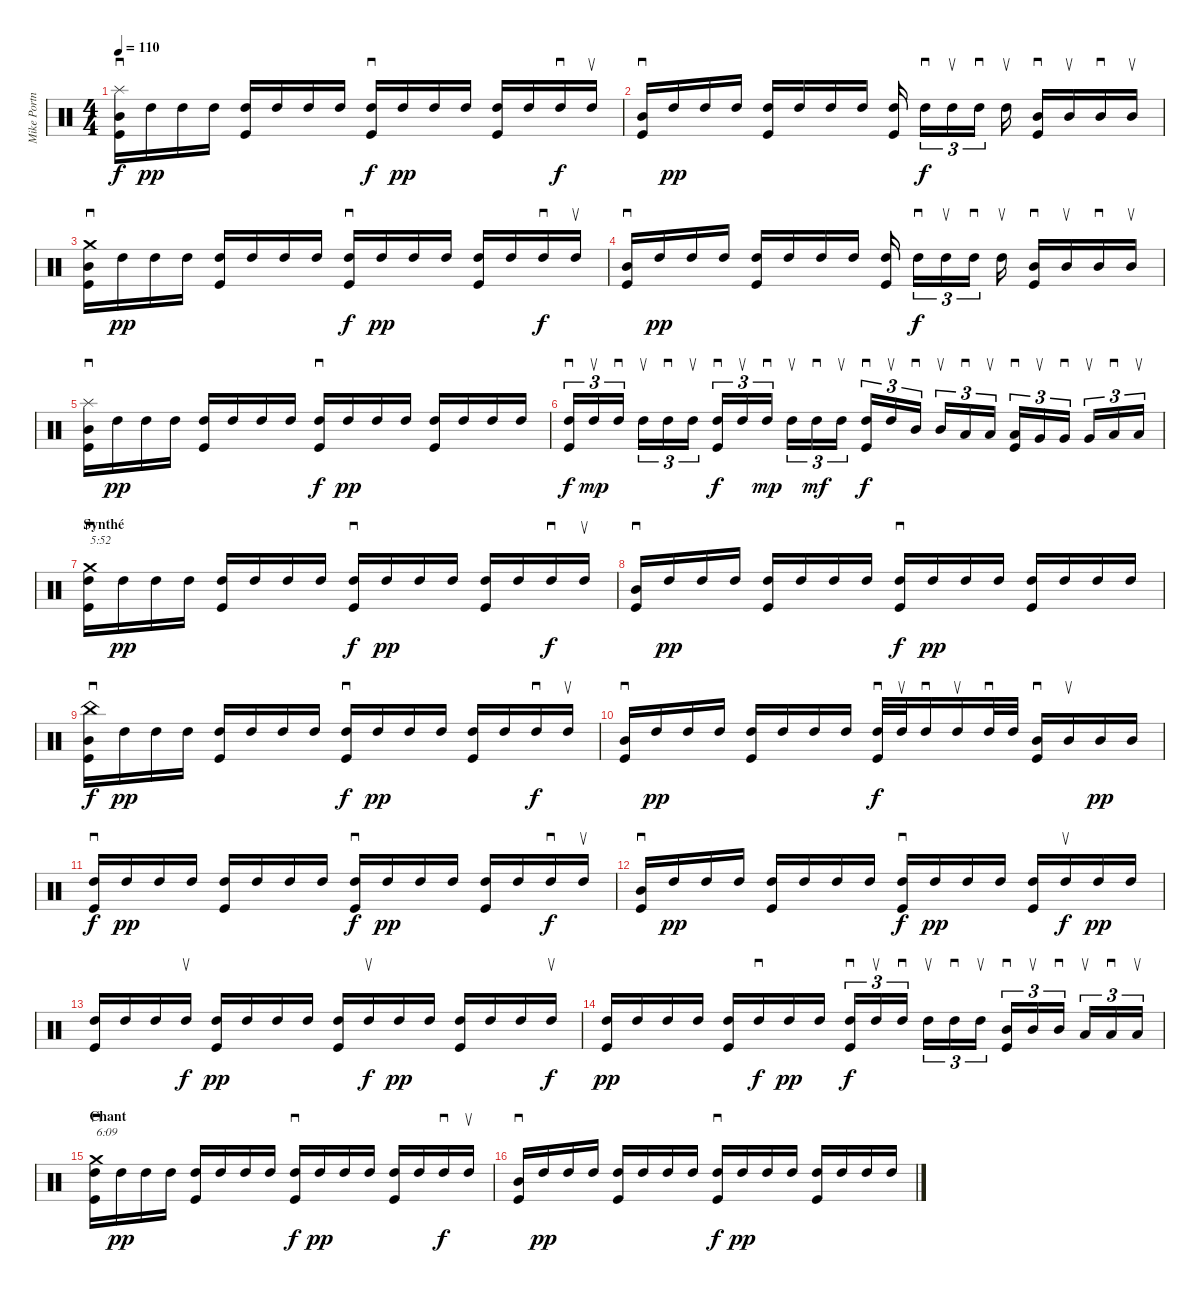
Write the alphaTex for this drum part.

\track ("Mike Portnoy" "Mike Portn") {instrument percussion}
\staff {score}
\articulation defaults
\ts (4 4)
\tempo 110
\clef neutral
\ks c
("Splash (hit)" "Mid Tom (hit)" "Kick (hit)").16{sd dy f} "High Tom (hit)".16{dy pp} "High Tom (hit)".16 "High Tom (hit)".16 ("High Tom (hit)" "Kick (hit)").16 "High Tom (hit)".16 "High Tom (hit)".16 "High Tom (hit)".16 ("High Tom (hit)" "Kick (hit)").16{sd dy f} "High Tom (hit)".16{dy pp} "High Tom (hit)".16 "High Tom (hit)".16 ("High Tom (hit)" "Kick (hit)").16 "High Tom (hit)".16 "High Tom (hit)".16{sd dy f} "High Tom (hit)".16{su} |
("Mid Tom (hit)" "Kick (hit)").16{sd} "High Tom (hit)".16{dy pp} "High Tom (hit)".16 "High Tom (hit)".16 ("High Tom (hit)" "Kick (hit)").16 "High Tom (hit)".16 "High Tom (hit)".16 "High Tom (hit)".16 ("High Tom (hit)" "Kick (hit)").16 "High Tom (hit)".16{sd tu (3 2) dy f} "High Tom (hit)".16{su tu (3 2)} "High Tom (hit)".16{sd tu (3 2)} "High Tom (hit)".16{su} ("Mid Tom (hit)" "Kick (hit)").16{sd} "Mid Tom (hit)".16{su} "Mid Tom (hit)".16{sd} "Mid Tom (hit)".16{su} |
("Crash medium (hit)" "Mid Tom (hit)" "Kick (hit)").16{sd} "High Tom (hit)".16{dy pp} "High Tom (hit)".16 "High Tom (hit)".16 ("High Tom (hit)" "Kick (hit)").16 "High Tom (hit)".16 "High Tom (hit)".16 "High Tom (hit)".16 ("High Tom (hit)" "Kick (hit)").16{sd dy f} "High Tom (hit)".16{dy pp} "High Tom (hit)".16 "High Tom (hit)".16 ("High Tom (hit)" "Kick (hit)").16 "High Tom (hit)".16 "High Tom (hit)".16{sd dy f} "High Tom (hit)".16{su} |
("Mid Tom (hit)" "Kick (hit)").16{sd} "High Tom (hit)".16{dy pp} "High Tom (hit)".16 "High Tom (hit)".16 ("High Tom (hit)" "Kick (hit)").16 "High Tom (hit)".16 "High Tom (hit)".16 "High Tom (hit)".16 ("High Tom (hit)" "Kick (hit)").16 "High Tom (hit)".16{sd tu (3 2) dy f} "High Tom (hit)".16{su tu (3 2)} "High Tom (hit)".16{sd tu (3 2)} "High Tom (hit)".16{su} ("Mid Tom (hit)" "Kick (hit)").16{sd} "Mid Tom (hit)".16{su} "Mid Tom (hit)".16{sd} "Mid Tom (hit)".16{su} |
("Splash (hit)" "Mid Tom (hit)" "Kick (hit)").16{sd} "High Tom (hit)".16{dy pp} "High Tom (hit)".16 "High Tom (hit)".16 ("High Tom (hit)" "Kick (hit)").16 "High Tom (hit)".16 "High Tom (hit)".16 "High Tom (hit)".16 ("High Tom (hit)" "Kick (hit)").16{sd dy f} "High Tom (hit)".16{dy pp} "High Tom (hit)".16 "High Tom (hit)".16 ("High Tom (hit)" "Kick (hit)").16 "High Tom (hit)".16 "High Tom (hit)".16 "High Tom (hit)".16 |
("High Tom (hit)" "Kick (hit)").16{sd tu (3 2) dy f} "High Tom (hit)".16{su tu (3 2) dy mp} "High Tom (hit)".16{sd tu (3 2)} "High Tom (hit)".16{su tu (3 2)} "High Tom (hit)".16{sd tu (3 2)} "High Tom (hit)".16{su tu (3 2)} ("High Tom (hit)" "Kick (hit)").16{sd tu (3 2) dy f} "High Tom (hit)".16{su tu (3 2)} "High Tom (hit)".16{sd tu (3 2) dy mp} "High Tom (hit)".16{su tu (3 2)} "High Tom (hit)".16{sd tu (3 2) dy mf} "High Tom (hit)".16{su tu (3 2)} ("High Tom (hit)" "Kick (hit)").16{sd tu (3 2) dy f} "High Tom (hit)".16{su tu (3 2)} "Mid Tom (hit)".16{sd tu (3 2)} "Mid Tom (hit)".16{su tu (3 2)} "Low Tom (hit)".16{sd tu (3 2)} "Low Tom (hit)".16{su tu (3 2)} ("Low Tom (hit)" "Kick (hit)").16{sd tu (3 2)} "Very Low Tom (hit)".16{su tu (3 2)} "Very Low Tom (hit)".16{sd tu (3 2)} "Very Low Tom (hit)".16{su tu (3 2)} "Low Floor Tom (hit)".16{sd tu (3 2)} "Low Floor Tom (hit)".16{su tu (3 2)} |
\section ("" "Synthé")
("Crash medium (hit)" "High Tom (hit)" "Kick (hit)").16{sd txt "5:52"} "High Tom (hit)".16{dy pp} "High Tom (hit)".16 "High Tom (hit)".16 ("High Tom (hit)" "Kick (hit)").16 "High Tom (hit)".16 "High Tom (hit)".16 "High Tom (hit)".16 ("High Tom (hit)" "Kick (hit)").16{sd dy f} "High Tom (hit)".16{dy pp} "High Tom (hit)".16 "High Tom (hit)".16 ("High Tom (hit)" "Kick (hit)").16 "High Tom (hit)".16 "High Tom (hit)".16{sd dy f} "High Tom (hit)".16{su} |
("Mid Tom (hit)" "Kick (hit)").16{sd} "High Tom (hit)".16{dy pp} "High Tom (hit)".16 "High Tom (hit)".16 ("High Tom (hit)" "Kick (hit)").16 "High Tom (hit)".16 "High Tom (hit)".16 "High Tom (hit)".16 ("High Tom (hit)" "Kick (hit)").16{sd dy f} "High Tom (hit)".16{dy pp} "High Tom (hit)".16 "High Tom (hit)".16 ("High Tom (hit)" "Kick (hit)").16 "High Tom (hit)".16 "High Tom (hit)".16 "High Tom (hit)".16 |
("China (hit)" "Mid Tom (hit)" "Kick (hit)").16{sd dy f} "High Tom (hit)".16{dy pp} "High Tom (hit)".16 "High Tom (hit)".16 ("High Tom (hit)" "Kick (hit)").16 "High Tom (hit)".16 "High Tom (hit)".16 "High Tom (hit)".16 ("High Tom (hit)" "Kick (hit)").16{sd dy f} "High Tom (hit)".16{dy pp} "High Tom (hit)".16 "High Tom (hit)".16 ("High Tom (hit)" "Kick (hit)").16 "High Tom (hit)".16 "High Tom (hit)".16{sd dy f} "High Tom (hit)".16{su} |
("Mid Tom (hit)" "Kick (hit)").16{sd} "High Tom (hit)".16{dy pp} "High Tom (hit)".16 "High Tom (hit)".16 ("High Tom (hit)" "Kick (hit)").16 "High Tom (hit)".16 "High Tom (hit)".16 "High Tom (hit)".16 ("High Tom (hit)" "Kick (hit)").32{sd dy f} "High Tom (hit)".32{su} "High Tom (hit)".16{sd} "High Tom (hit)".16{su} "High Tom (hit)".32{sd} "High Tom (hit)".32 ("Mid Tom (hit)" "Kick (hit)").16{sd} "Mid Tom (hit)".16{su} "Mid Tom (hit)".16{dy pp} "Mid Tom (hit)".16 |
("High Tom (hit)" "Kick (hit)").16{sd dy f} "High Tom (hit)".16{dy pp} "High Tom (hit)".16 "High Tom (hit)".16 ("High Tom (hit)" "Kick (hit)").16 "High Tom (hit)".16 "High Tom (hit)".16 "High Tom (hit)".16 ("High Tom (hit)" "Kick (hit)").16{sd dy f} "High Tom (hit)".16{dy pp} "High Tom (hit)".16 "High Tom (hit)".16 ("High Tom (hit)" "Kick (hit)").16 "High Tom (hit)".16 "High Tom (hit)".16{sd dy f} "High Tom (hit)".16{su} |
("Mid Tom (hit)" "Kick (hit)").16{sd} "High Tom (hit)".16{dy pp} "High Tom (hit)".16 "High Tom (hit)".16 ("High Tom (hit)" "Kick (hit)").16 "High Tom (hit)".16 "High Tom (hit)".16 "High Tom (hit)".16 ("High Tom (hit)" "Kick (hit)").16{sd dy f} "High Tom (hit)".16{dy pp} "High Tom (hit)".16 "High Tom (hit)".16 ("High Tom (hit)" "Kick (hit)").16 "High Tom (hit)".16{su dy f} "High Tom (hit)".16{dy pp} "High Tom (hit)".16 |
("High Tom (hit)" "Kick (hit)").16 "High Tom (hit)".16 "High Tom (hit)".16 "High Tom (hit)".16{su dy f} ("High Tom (hit)" "Kick (hit)").16{dy pp} "High Tom (hit)".16 "High Tom (hit)".16 "High Tom (hit)".16 ("High Tom (hit)" "Kick (hit)").16 "High Tom (hit)".16{su dy f} "High Tom (hit)".16{dy pp} "High Tom (hit)".16 ("High Tom (hit)" "Kick (hit)").16 "High Tom (hit)".16 "High Tom (hit)".16 "High Tom (hit)".16{su dy f} |
("High Tom (hit)" "Kick (hit)").16{dy pp} "High Tom (hit)".16 "High Tom (hit)".16 "High Tom (hit)".16 ("High Tom (hit)" "Kick (hit)").16 "High Tom (hit)".16{sd dy f} "High Tom (hit)".16{dy pp} "High Tom (hit)".16 ("High Tom (hit)" "Kick (hit)").16{sd tu (3 2) dy f} "High Tom (hit)".16{su tu (3 2)} "High Tom (hit)".16{sd tu (3 2)} "High Tom (hit)".16{su tu (3 2)} "High Tom (hit)".16{sd tu (3 2)} "High Tom (hit)".16{su tu (3 2)} ("Mid Tom (hit)" "Kick (hit)").16{sd tu (3 2)} "Mid Tom (hit)".16{su tu (3 2)} "Mid Tom (hit)".16{sd tu (3 2)} "Low Tom (hit)".16{su tu (3 2)} "Low Tom (hit)".16{sd tu (3 2)} "Low Tom (hit)".16{su tu (3 2)} |
\section ("" "Chant")
("Crash medium (hit)" "High Tom (hit)" "Kick (hit)").16{sd txt "6:09"} "High Tom (hit)".16{dy pp} "High Tom (hit)".16 "High Tom (hit)".16 ("High Tom (hit)" "Kick (hit)").16 "High Tom (hit)".16 "High Tom (hit)".16 "High Tom (hit)".16 ("High Tom (hit)" "Kick (hit)").16{sd dy f} "High Tom (hit)".16{dy pp} "High Tom (hit)".16 "High Tom (hit)".16 ("High Tom (hit)" "Kick (hit)").16 "High Tom (hit)".16 "High Tom (hit)".16{sd dy f} "High Tom (hit)".16{su} |
("Mid Tom (hit)" "Kick (hit)").16{sd} "High Tom (hit)".16{dy pp} "High Tom (hit)".16 "High Tom (hit)".16 ("High Tom (hit)" "Kick (hit)").16 "High Tom (hit)".16 "High Tom (hit)".16 "High Tom (hit)".16 ("High Tom (hit)" "Kick (hit)").16{sd dy f} "High Tom (hit)".16{dy pp} "High Tom (hit)".16 "High Tom (hit)".16 ("High Tom (hit)" "Kick (hit)").16 "High Tom (hit)".16 "High Tom (hit)".16 "High Tom (hit)".16
